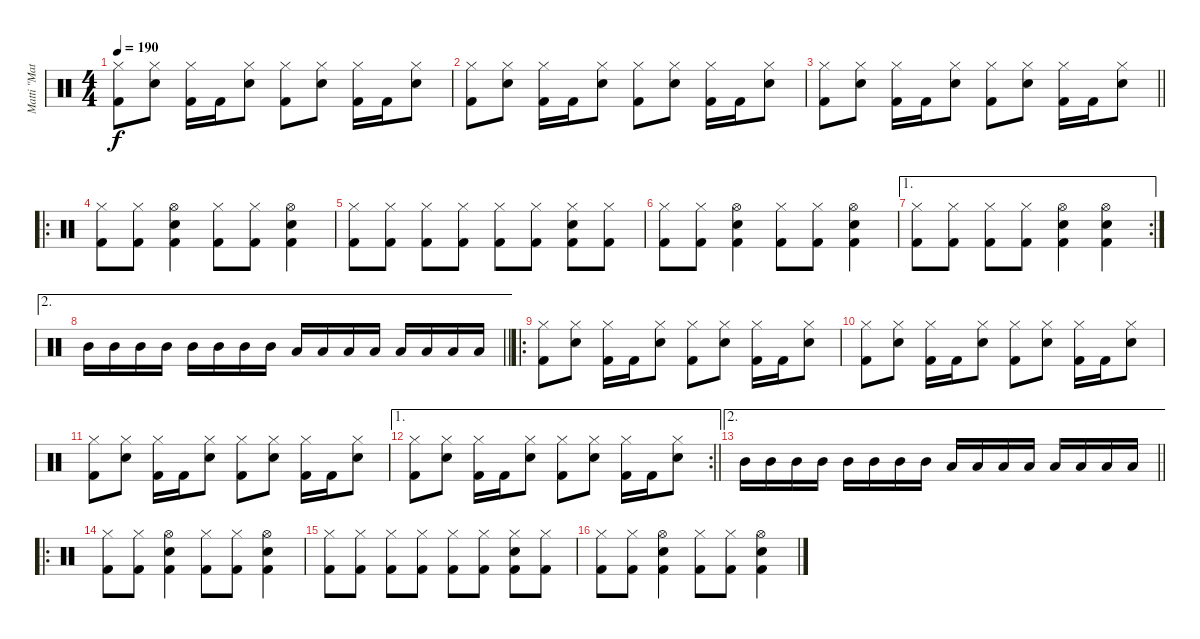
\track ("Matti \"Matson\" Johansson" "Matti \"Mat") {instrument percussion}
\staff {score}
\articulation defaults
\ts (4 4)
\tempo 190
\clef neutral
\ks c
("Hi-Hat (closed)" "Kick (hit) 2").8{dy f} ("Hi-Hat (closed)" "Snare (hit) 2").8 ("Hi-Hat (closed)" "Kick (hit) 2").16 "Kick (hit) 2".16 ("Hi-Hat (closed)" "Snare (hit) 2").8 ("Hi-Hat (closed)" "Kick (hit) 2").8 ("Hi-Hat (closed)" "Snare (hit) 2").8 ("Hi-Hat (closed)" "Kick (hit) 2").16 "Kick (hit) 2".16 ("Hi-Hat (closed)" "Snare (hit) 2").8 |
("Hi-Hat (closed)" "Kick (hit) 2").8 ("Hi-Hat (closed)" "Snare (hit) 2").8 ("Hi-Hat (closed)" "Kick (hit) 2").16 "Kick (hit) 2".16 ("Hi-Hat (closed)" "Snare (hit) 2").8 ("Hi-Hat (closed)" "Kick (hit) 2").8 ("Hi-Hat (closed)" "Snare (hit) 2").8 ("Hi-Hat (closed)" "Kick (hit) 2").16 "Kick (hit) 2".16 ("Hi-Hat (closed)" "Snare (hit) 2").8 |
\barLineRight lightlight
("Hi-Hat (closed)" "Kick (hit) 2").8 ("Hi-Hat (closed)" "Snare (hit) 2").8 ("Hi-Hat (closed)" "Kick (hit) 2").16 "Kick (hit) 2".16 ("Hi-Hat (closed)" "Snare (hit) 2").8 ("Hi-Hat (closed)" "Kick (hit) 2").8 ("Hi-Hat (closed)" "Snare (hit) 2").8 ("Hi-Hat (closed)" "Kick (hit) 2").16 "Kick (hit) 2".16 ("Hi-Hat (closed)" "Snare (hit) 2").8 |
\ro
\section ("" "")
("Hi-Hat (closed)" "Kick (hit) 2").8 ("Hi-Hat (closed)" "Kick (hit) 2").8 ("Hi-Hat (open)" "Snare (hit) 2" "Kick (hit) 2").4 ("Hi-Hat (closed)" "Kick (hit) 2").8 ("Hi-Hat (closed)" "Kick (hit) 2").8 ("Hi-Hat (open)" "Snare (hit) 2" "Kick (hit) 2").4 |
("Hi-Hat (closed)" "Kick (hit) 2").8 ("Hi-Hat (closed)" "Kick (hit) 2").8 ("Hi-Hat (closed)" "Kick (hit) 2").8 ("Hi-Hat (closed)" "Kick (hit) 2").8 ("Hi-Hat (closed)" "Kick (hit) 2").8 ("Hi-Hat (closed)" "Kick (hit) 2").8 ("Hi-Hat (closed)" "Snare (hit) 2" "Kick (hit) 2").8 ("Hi-Hat (closed)" "Kick (hit) 2").8 |
("Hi-Hat (closed)" "Kick (hit) 2").8 ("Hi-Hat (closed)" "Kick (hit) 2").8 ("Hi-Hat (open)" "Snare (hit) 2" "Kick (hit) 2").4 ("Hi-Hat (closed)" "Kick (hit) 2").8 ("Hi-Hat (closed)" "Kick (hit) 2").8 ("Hi-Hat (open)" "Snare (hit) 2" "Kick (hit) 2").4 |
\ae 1
\rc 2
("Hi-Hat (closed)" "Kick (hit) 2").8 ("Hi-Hat (closed)" "Kick (hit) 2").8 ("Hi-Hat (closed)" "Kick (hit) 2").8 ("Hi-Hat (closed)" "Kick (hit) 2").8 ("Hi-Hat (open)" "Snare (hit) 2" "Kick (hit) 2").4 ("Hi-Hat (open)" "Snare (hit) 2" "Kick (hit) 2").4 |
\ae 2
\barLineRight lightlight "Mid Tom (hit)".16 "Mid Tom (hit)".16 "Mid Tom (hit)".16 "Mid Tom (hit)".16 "Mid Tom (hit)".16 "Mid Tom (hit)".16 "Mid Tom (hit)".16 "Mid Tom (hit)".16 "Low Tom (hit)".16 "Low Tom (hit)".16 "Low Tom (hit)".16 "Low Tom (hit)".16 "Low Tom (hit)".16 "Low Tom (hit)".16 "Low Tom (hit)".16 "Low Tom (hit)".16
|
\ro
\section ("" "")
("Hi-Hat (closed)" "Kick (hit) 2").8 ("Hi-Hat (closed)" "Snare (hit) 2").8 ("Hi-Hat (closed)" "Kick (hit) 2").16 "Kick (hit) 2".16 ("Hi-Hat (closed)" "Snare (hit) 2").8 ("Hi-Hat (closed)" "Kick (hit) 2").8 ("Hi-Hat (closed)" "Snare (hit) 2").8 ("Hi-Hat (closed)" "Kick (hit) 2").16 "Kick (hit) 2".16 ("Hi-Hat (closed)" "Snare (hit) 2").8 |
("Hi-Hat (closed)" "Kick (hit) 2").8 ("Hi-Hat (closed)" "Snare (hit) 2").8 ("Hi-Hat (closed)" "Kick (hit) 2").16 "Kick (hit) 2".16 ("Hi-Hat (closed)" "Snare (hit) 2").8 ("Hi-Hat (closed)" "Kick (hit) 2").8 ("Hi-Hat (closed)" "Snare (hit) 2").8 ("Hi-Hat (closed)" "Kick (hit) 2").16 "Kick (hit) 2".16 ("Hi-Hat (closed)" "Snare (hit) 2").8 |
("Hi-Hat (closed)" "Kick (hit) 2").8 ("Hi-Hat (closed)" "Snare (hit) 2").8 ("Hi-Hat (closed)" "Kick (hit) 2").16 "Kick (hit) 2".16 ("Hi-Hat (closed)" "Snare (hit) 2").8 ("Hi-Hat (closed)" "Kick (hit) 2").8 ("Hi-Hat (closed)" "Snare (hit) 2").8 ("Hi-Hat (closed)" "Kick (hit) 2").16 "Kick (hit) 2".16 ("Hi-Hat (closed)" "Snare (hit) 2").8 |
\ae 1
\rc 2
\barLineRight lightlight
("Hi-Hat (closed)" "Kick (hit) 2").8 ("Hi-Hat (closed)" "Snare (hit) 2").8 ("Hi-Hat (closed)" "Kick (hit) 2").16 "Kick (hit) 2".16 ("Hi-Hat (closed)" "Snare (hit) 2").8 ("Hi-Hat (closed)" "Kick (hit) 2").8 ("Hi-Hat (closed)" "Snare (hit) 2").8 ("Hi-Hat (closed)" "Kick (hit) 2").16 "Kick (hit) 2".16 ("Hi-Hat (closed)" "Snare (hit) 2").8 |
\ae 2
\barLineRight lightlight "Mid Tom (hit)".16 "Mid Tom (hit)".16 "Mid Tom (hit)".16 "Mid Tom (hit)".16 "Mid Tom (hit)".16 "Mid Tom (hit)".16 "Mid Tom (hit)".16 "Mid Tom (hit)".16 "Low Tom (hit)".16 "Low Tom (hit)".16 "Low Tom (hit)".16 "Low Tom (hit)".16 "Low Tom (hit)".16 "Low Tom (hit)".16 "Low Tom (hit)".16 "Low Tom (hit)".16
|
\ro
\section ("" "")
("Hi-Hat (closed)" "Kick (hit) 2").8 ("Hi-Hat (closed)" "Kick (hit) 2").8 ("Hi-Hat (open)" "Snare (hit) 2" "Kick (hit) 2").4 ("Hi-Hat (closed)" "Kick (hit) 2").8 ("Hi-Hat (closed)" "Kick (hit) 2").8 ("Hi-Hat (open)" "Snare (hit) 2" "Kick (hit) 2").4 |
("Hi-Hat (closed)" "Kick (hit) 2").8 ("Hi-Hat (closed)" "Kick (hit) 2").8 ("Hi-Hat (closed)" "Kick (hit) 2").8 ("Hi-Hat (closed)" "Kick (hit) 2").8 ("Hi-Hat (closed)" "Kick (hit) 2").8 ("Hi-Hat (closed)" "Kick (hit) 2").8 ("Hi-Hat (closed)" "Snare (hit) 2" "Kick (hit) 2").8 ("Hi-Hat (closed)" "Kick (hit) 2").8 |
("Hi-Hat (closed)" "Kick (hit) 2").8 ("Hi-Hat (closed)" "Kick (hit) 2").8 ("Hi-Hat (open)" "Snare (hit) 2" "Kick (hit) 2").4 ("Hi-Hat (closed)" "Kick (hit) 2").8 ("Hi-Hat (closed)" "Kick (hit) 2").8 ("Hi-Hat (open)" "Snare (hit) 2" "Kick (hit) 2").4
